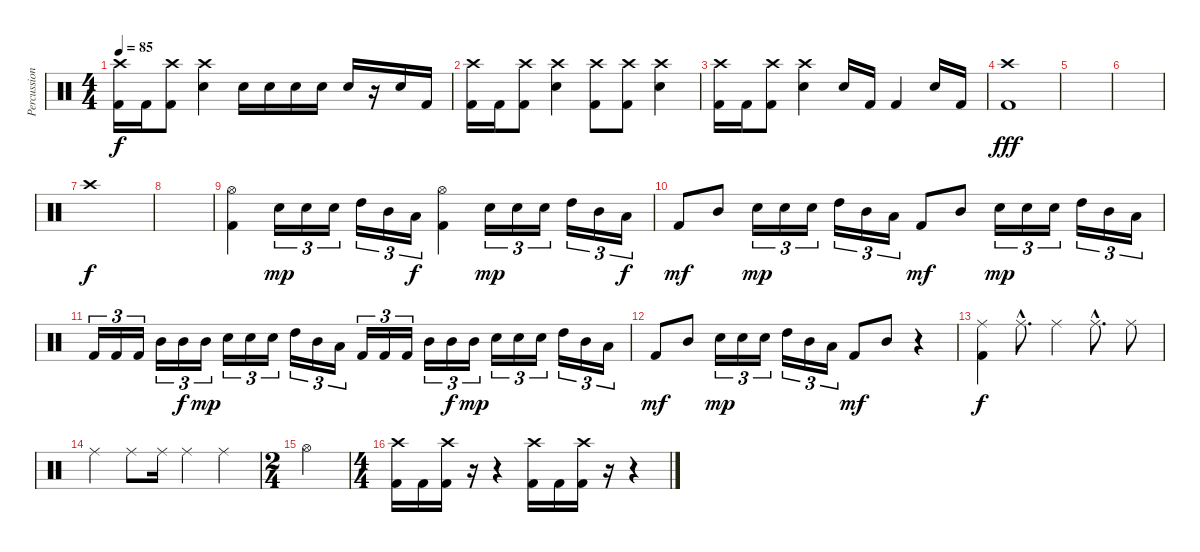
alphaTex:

\track ("Percussion" "Percussion") {instrument percussion}
\staff {score}
\articulation defaults
\ts (4 4)
\tempo 85
\clef neutral
\ks c
("Crash high (hit)" "Kick (hit) 2").16{dy f} "Kick (hit) 2".16 ("Crash high (hit)" "Kick (hit) 2").8 ("Crash high (hit)" "Electric Snare (hit)").4 "Electric Snare (hit)".16 "Electric Snare (hit)".16 "Electric Snare (hit)".16 "Electric Snare (hit)".16 "Electric Snare (hit)".16 r.16 "Electric Snare (hit)".16 "Kick (hit) 2".16 |
("Crash high (hit)" "Kick (hit) 2").16 "Kick (hit) 2".16 ("Crash high (hit)" "Kick (hit) 2").8 ("Crash high (hit)" "Electric Snare (hit)").4 ("Crash high (hit)" "Kick (hit) 2").8 ("Crash high (hit)" "Kick (hit) 2").8 ("Crash high (hit)" "Electric Snare (hit)").4 |
("Crash high (hit)" "Kick (hit) 2").16 "Kick (hit) 2".16 ("Crash high (hit)" "Kick (hit) 2").8 ("Crash high (hit)" "Electric Snare (hit)").4 "Electric Snare (hit)".16 "Kick (hit) 2".16 "Kick (hit) 2".4 "Electric Snare (hit)".16 "Kick (hit) 2".16 |
("Crash high (hit)" "Kick (hit) 2").1{dy fff} |
|
|
"Crash high (hit)".1{dy f} |
|
("Hi-Hat (open)" "Kick (hit) 2").4 "Electric Snare (hit)".16{tu (3 2) dy mp} "Electric Snare (hit)".16{tu (3 2)} "Electric Snare (hit)".16{tu (3 2)} "High Tom (hit)".16{tu (3 2)} "Mid Tom (hit)".16{tu (3 2)} "Low Tom (hit)".16{tu (3 2) dy f} ("Hi-Hat (open)" "Kick (hit) 2").4 "Electric Snare (hit)".16{tu (3 2) dy mp} "Electric Snare (hit)".16{tu (3 2)} "Electric Snare (hit)".16{tu (3 2)} "High Tom (hit)".16{tu (3 2)} "Mid Tom (hit)".16{tu (3 2)} "Low Tom (hit)".16{tu (3 2) dy f} |
"Kick (hit) 2".8{dy mf} "Mid Tom (hit)".8 "Electric Snare (hit)".16{tu (3 2) dy mp} "Electric Snare (hit)".16{tu (3 2)} "Electric Snare (hit)".16{tu (3 2)} "High Tom (hit)".16{tu (3 2)} "Mid Tom (hit)".16{tu (3 2)} "Low Tom (hit)".16{tu (3 2)} "Kick (hit) 2".8{dy mf} "Mid Tom (hit)".8 "Electric Snare (hit)".16{tu (3 2) dy mp} "Electric Snare (hit)".16{tu (3 2)} "Electric Snare (hit)".16{tu (3 2)} "High Tom (hit)".16{tu (3 2)} "Mid Tom (hit)".16{tu (3 2)} "Low Tom (hit)".16{tu (3 2)} |
"Kick (hit) 2".16{tu (3 2)} "Kick (hit) 2".16{tu (3 2)} "Kick (hit) 2".16{tu (3 2)} "Mid Tom (hit)".16{tu (3 2)} "Mid Tom (hit)".16{tu (3 2) dy f} "Mid Tom (hit)".16{tu (3 2) dy mp} "Electric Snare (hit)".16{tu (3 2)} "Electric Snare (hit)".16{tu (3 2)} "Electric Snare (hit)".16{tu (3 2)} "High Tom (hit)".16{tu (3 2)} "Mid Tom (hit)".16{tu (3 2)} "Low Tom (hit)".16{tu (3 2)} "Kick (hit) 2".16{tu (3 2)} "Kick (hit) 2".16{tu (3 2)} "Kick (hit) 2".16{tu (3 2)} "Mid Tom (hit)".16{tu (3 2)} "Mid Tom (hit)".16{tu (3 2) dy f} "Mid Tom (hit)".16{tu (3 2) dy mp} "Electric Snare (hit)".16{tu (3 2)} "Electric Snare (hit)".16{tu (3 2)} "Electric Snare (hit)".16{tu (3 2)} "High Tom (hit)".16{tu (3 2)} "Mid Tom (hit)".16{tu (3 2)} "Low Tom (hit)".16{tu (3 2)} |
"Kick (hit) 2".8{dy mf} "Mid Tom (hit)".8 "Electric Snare (hit)".16{tu (3 2) dy mp} "Electric Snare (hit)".16{tu (3 2)} "Electric Snare (hit)".16{tu (3 2)} "High Tom (hit)".16{tu (3 2)} "Mid Tom (hit)".16{tu (3 2)} "Low Tom (hit)".16{tu (3 2)} "Kick (hit) 2".8{dy mf} "Mid Tom (hit)".8 r.4 |
("Ride (middle)" "Kick (hit) 2").4{dy f} "Ride (middle)"{hac}.8{d} "Ride (middle)".4 "Ride (middle)"{hac}.8{d} "Ride (middle)".8 |
"Ride (middle)".4 "Ride (middle)".8 "Ride (middle)".16 "Ride (middle)".4 "Ride (middle)".4 |
\ts (2 4)
"Hi-Hat (open)".2 |
\ts (4 4)
("Crash high (hit)" "Kick (hit) 2").16 "Kick (hit) 2".16 ("Crash high (hit)" "Kick (hit) 2").16 r.16 r.4 ("Crash high (hit)" "Kick (hit) 2").16 "Kick (hit) 2".16 ("Crash high (hit)" "Kick (hit) 2").16 r.16 r.4
